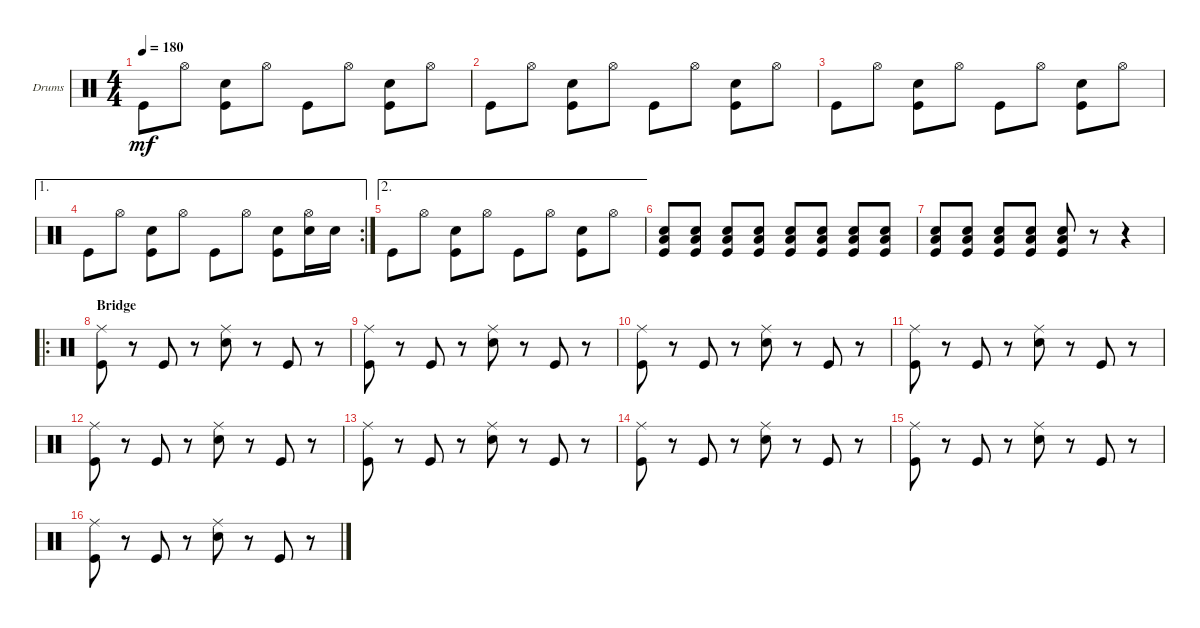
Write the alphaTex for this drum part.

\bracketExtendMode groupsimilarinstruments
\firstSystemTrackNameOrientation horizontal
\otherSystemsTrackNameOrientation horizontal
\track ("Drumkit" "Drums") {instrument percussion}
\staff {score}
\articulation defaults
\ts (4 4)
\tempo 180
\clef neutral
\ks c "Kick (hit)".8{dy mf} "Hi-Hat (open)".8
("Snare (hit) 2" "Kick (hit)").8 "Hi-Hat (open)".8 "Kick (hit)".8 "Hi-Hat (open)".8 ("Snare (hit) 2" "Kick (hit)").8 "Hi-Hat (open)".8 |
"Kick (hit)".8 "Hi-Hat (open)".8 ("Snare (hit) 2" "Kick (hit)").8 "Hi-Hat (open)".8 "Kick (hit)".8 "Hi-Hat (open)".8 ("Snare (hit) 2" "Kick (hit)").8 "Hi-Hat (open)".8 |
"Kick (hit)".8 "Hi-Hat (open)".8 ("Snare (hit) 2" "Kick (hit)").8 "Hi-Hat (open)".8 "Kick (hit)".8 "Hi-Hat (open)".8 ("Snare (hit) 2" "Kick (hit)").8 "Hi-Hat (open)".8 |
\ae 1
\rc 2 "Kick (hit)".8 "Hi-Hat (open)".8
("Snare (hit) 2" "Kick (hit)").8 "Hi-Hat (open)".8 "Kick (hit)".8 "Hi-Hat (open)".8 ("Snare (hit) 2" "Kick (hit)").8 ("Hi-Hat (open)" "Snare (hit) 2").16 "Snare (hit) 2".16 |
\ae 2 "Kick (hit)".8 "Hi-Hat (open)".8
("Snare (hit) 2" "Kick (hit)").8 "Hi-Hat (open)".8 "Kick (hit)".8 "Hi-Hat (open)".8 ("Snare (hit) 2" "Kick (hit)").8 "Hi-Hat (open)".8 |
("Kick (hit)" "Snare (hit) 2" "Low Tom (hit)").8 ("Kick (hit)" "Snare (hit) 2" "Low Tom (hit)").8 ("Kick (hit)" "Snare (hit) 2" "Low Tom (hit)").8 ("Kick (hit)" "Snare (hit) 2" "Low Tom (hit)").8 ("Kick (hit)" "Snare (hit) 2" "Low Tom (hit)").8 ("Kick (hit)" "Snare (hit) 2" "Low Tom (hit)").8 ("Kick (hit)" "Snare (hit) 2" "Low Tom (hit)").8 ("Kick (hit)" "Snare (hit) 2" "Low Tom (hit)").8 |
("Kick (hit)" "Snare (hit) 2" "Low Tom (hit)").8 ("Kick (hit)" "Snare (hit) 2" "Low Tom (hit)").8 ("Kick (hit)" "Snare (hit) 2" "Low Tom (hit)").8 ("Kick (hit)" "Snare (hit) 2" "Low Tom (hit)").8 ("Low Tom (hit)" "Snare (hit) 2" "Kick (hit)").8 r.8 r.4 |
\ro
\section ("" "Bridge")
("Kick (hit)" "Ride (middle)").8 r.8 "Kick (hit)".8 r.8 ("Snare (hit) 2" "Ride (middle)").8 r.8 "Kick (hit)".8 r.8 |
("Kick (hit)" "Ride (middle)").8 r.8 "Kick (hit)".8 r.8 ("Snare (hit) 2" "Ride (middle)").8 r.8 "Kick (hit)".8 r.8 |
("Kick (hit)" "Ride (middle)").8 r.8 "Kick (hit)".8 r.8 ("Snare (hit) 2" "Ride (middle)").8 r.8 "Kick (hit)".8 r.8 |
("Kick (hit)" "Ride (middle)").8 r.8 "Kick (hit)".8 r.8 ("Snare (hit) 2" "Ride (middle)").8 r.8 "Kick (hit)".8 r.8 |
("Kick (hit)" "Ride (middle)").8 r.8 "Kick (hit)".8 r.8 ("Snare (hit) 2" "Ride (middle)").8 r.8 "Kick (hit)".8 r.8 |
("Kick (hit)" "Ride (middle)").8 r.8 "Kick (hit)".8 r.8 ("Snare (hit) 2" "Ride (middle)").8 r.8 "Kick (hit)".8 r.8 |
("Kick (hit)" "Ride (middle)").8 r.8 "Kick (hit)".8 r.8 ("Snare (hit) 2" "Ride (middle)").8 r.8 "Kick (hit)".8 r.8 |
("Kick (hit)" "Ride (middle)").8 r.8 "Kick (hit)".8 r.8 ("Snare (hit) 2" "Ride (middle)").8 r.8 "Kick (hit)".8 r.8 |
("Kick (hit)" "Ride (middle)").8 r.8 "Kick (hit)".8 r.8 ("Snare (hit) 2" "Ride (middle)").8 r.8 "Kick (hit)".8 r.8
